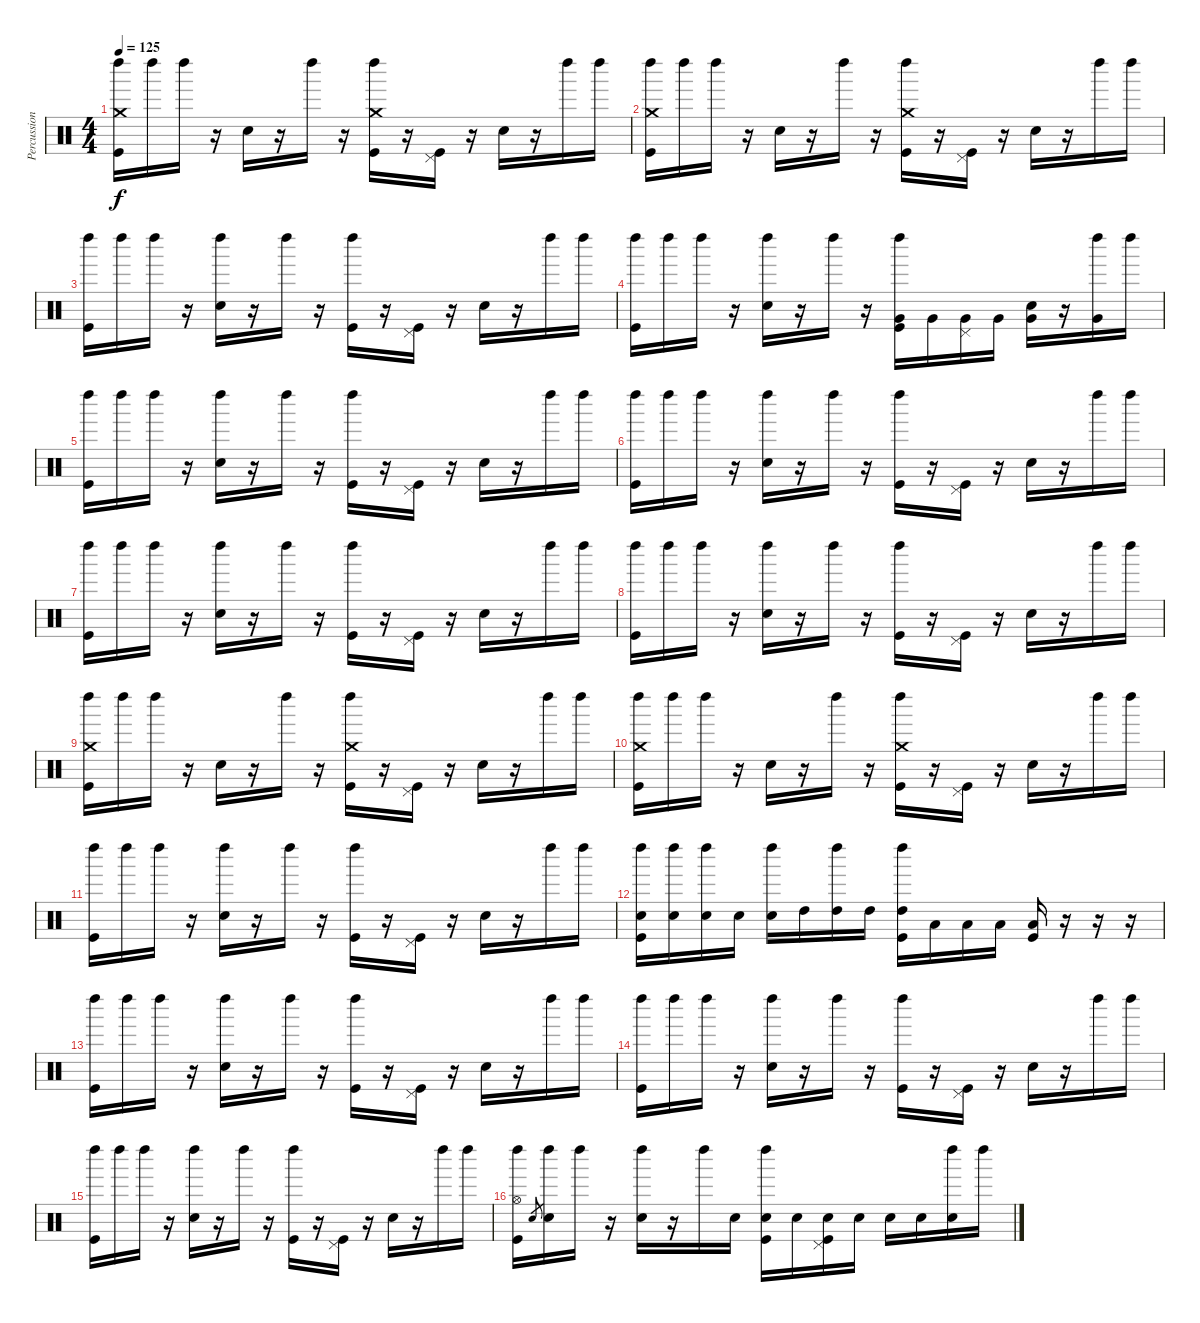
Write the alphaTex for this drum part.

\track ("Percussions" "Percussion") {instrument percussion}
\staff {score}
\articulation defaults
\ts (4 4)
\tempo 125
\clef neutral
\ks c
("Crash medium (hit)" "Left Maraca (hit)" "Kick (hit)").16{dy f} "Left Maraca (hit)".16 "Left Maraca (hit)".16 r.16 "Snare (hit) 2".16 r.16 "Left Maraca (hit)".16 r.16 ("Crash medium (hit)" "Left Maraca (hit)" "Kick (hit)").16 r.16 ("Pedal Hi-Hat (hit)" "Kick (hit)").16 r.16 "Snare (hit) 2".16 r.16 "Left Maraca (hit)".16 "Left Maraca (hit)".16 |
("Crash medium (hit)" "Left Maraca (hit)" "Kick (hit)").16 "Left Maraca (hit)".16 "Left Maraca (hit)".16 r.16 "Snare (hit) 2".16 r.16 "Left Maraca (hit)".16 r.16 ("Crash medium (hit)" "Left Maraca (hit)" "Kick (hit)").16 r.16 ("Pedal Hi-Hat (hit)" "Kick (hit)").16 r.16 "Snare (hit) 2".16 r.16 "Left Maraca (hit)".16 "Left Maraca (hit)".16 |
("Left Maraca (hit)" "Kick (hit)").16 "Left Maraca (hit)".16 "Left Maraca (hit)".16 r.16 ("Left Maraca (hit)" "Snare (hit) 2").16 r.16 "Left Maraca (hit)".16 r.16 ("Left Maraca (hit)" "Kick (hit)").16 r.16 ("Pedal Hi-Hat (hit)" "Kick (hit)").16 r.16 "Snare (hit) 2".16 r.16 "Left Maraca (hit)".16 "Left Maraca (hit)".16 |
("Left Maraca (hit)" "Kick (hit)").16 "Left Maraca (hit)".16 "Left Maraca (hit)".16 r.16 ("Left Maraca (hit)" "Snare (hit) 2").16 r.16 "Left Maraca (hit)".16 r.16 ("Left Maraca (hit)" "Very Low Tom (hit)" "Kick (hit)").16 "Very Low Tom (hit)".16 ("Pedal Hi-Hat (hit)" "Very Low Tom (hit)").16 "Very Low Tom (hit)".16 ("Snare (hit) 2" "Very Low Tom (hit)").16 r.16 ("Left Maraca (hit)" "Very Low Tom (hit)").16 "Left Maraca (hit)".16 |
("Left Maraca (hit)" "Kick (hit)").16 "Left Maraca (hit)".16 "Left Maraca (hit)".16 r.16 ("Left Maraca (hit)" "Snare (hit) 2").16 r.16 "Left Maraca (hit)".16 r.16 ("Left Maraca (hit)" "Kick (hit)").16 r.16 ("Pedal Hi-Hat (hit)" "Kick (hit)").16 r.16 "Snare (hit) 2".16 r.16 "Left Maraca (hit)".16 "Left Maraca (hit)".16 |
("Left Maraca (hit)" "Kick (hit)").16 "Left Maraca (hit)".16 "Left Maraca (hit)".16 r.16 ("Left Maraca (hit)" "Snare (hit) 2").16 r.16 "Left Maraca (hit)".16 r.16 ("Left Maraca (hit)" "Kick (hit)").16 r.16 ("Pedal Hi-Hat (hit)" "Kick (hit)").16 r.16 "Snare (hit) 2".16 r.16 "Left Maraca (hit)".16 "Left Maraca (hit)".16 |
("Left Maraca (hit)" "Kick (hit)").16 "Left Maraca (hit)".16 "Left Maraca (hit)".16 r.16 ("Left Maraca (hit)" "Snare (hit) 2").16 r.16 "Left Maraca (hit)".16 r.16 ("Left Maraca (hit)" "Kick (hit)").16 r.16 ("Pedal Hi-Hat (hit)" "Kick (hit)").16 r.16 "Snare (hit) 2".16 r.16 "Left Maraca (hit)".16 "Left Maraca (hit)".16 |
("Left Maraca (hit)" "Kick (hit)").16 "Left Maraca (hit)".16 "Left Maraca (hit)".16 r.16 ("Left Maraca (hit)" "Snare (hit) 2").16 r.16 "Left Maraca (hit)".16 r.16 ("Left Maraca (hit)" "Kick (hit)").16 r.16 ("Pedal Hi-Hat (hit)" "Kick (hit)").16 r.16 "Snare (hit) 2".16 r.16 "Left Maraca (hit)".16 "Left Maraca (hit)".16 |
("Crash medium (hit)" "Left Maraca (hit)" "Kick (hit)").16 "Left Maraca (hit)".16 "Left Maraca (hit)".16 r.16 "Snare (hit) 2".16 r.16 "Left Maraca (hit)".16 r.16 ("Crash medium (hit)" "Left Maraca (hit)" "Kick (hit)").16 r.16 ("Pedal Hi-Hat (hit)" "Kick (hit)").16 r.16 "Snare (hit) 2".16 r.16 "Left Maraca (hit)".16 "Left Maraca (hit)".16 |
("Crash medium (hit)" "Left Maraca (hit)" "Kick (hit)").16 "Left Maraca (hit)".16 "Left Maraca (hit)".16 r.16 "Snare (hit) 2".16 r.16 "Left Maraca (hit)".16 r.16 ("Crash medium (hit)" "Left Maraca (hit)" "Kick (hit)").16 r.16 ("Pedal Hi-Hat (hit)" "Kick (hit)").16 r.16 "Snare (hit) 2".16 r.16 "Left Maraca (hit)".16 "Left Maraca (hit)".16 |
("Left Maraca (hit)" "Kick (hit)").16 "Left Maraca (hit)".16 "Left Maraca (hit)".16 r.16 ("Left Maraca (hit)" "Snare (hit) 2").16 r.16 "Left Maraca (hit)".16 r.16 ("Left Maraca (hit)" "Kick (hit)").16 r.16 ("Pedal Hi-Hat (hit)" "Kick (hit)").16 r.16 "Snare (hit) 2".16 r.16 "Left Maraca (hit)".16 "Left Maraca (hit)".16 |
("Left Maraca (hit)" "Snare (hit) 2" "Kick (hit)").16 ("Left Maraca (hit)" "Snare (hit) 2").16{volume 8} ("Left Maraca (hit)" "Snare (hit) 2").16{volume 13} "Snare (hit) 2".16 ("Left Maraca (hit)" "Snare (hit) 2").16 "High Tom (hit)".16 ("Left Maraca (hit)" "High Tom (hit)").16 "High Tom (hit)".16 ("Left Maraca (hit)" "High Tom (hit)" "Kick (hit)").16 "Low Tom (hit)".16 "Low Tom (hit)".16 "Low Tom (hit)".16 ("Low Tom (hit)" "Kick (hit)").16 r.16 r.16 r.16 |
("Left Maraca (hit)" "Kick (hit)").16 "Left Maraca (hit)".16 "Left Maraca (hit)".16 r.16 ("Left Maraca (hit)" "Snare (hit) 2").16 r.16 "Left Maraca (hit)".16 r.16 ("Left Maraca (hit)" "Kick (hit)").16 r.16 ("Pedal Hi-Hat (hit)" "Kick (hit)").16 r.16 "Snare (hit) 2".16 r.16 "Left Maraca (hit)".16 "Left Maraca (hit)".16 |
("Left Maraca (hit)" "Kick (hit)").16 "Left Maraca (hit)".16 "Left Maraca (hit)".16 r.16 ("Left Maraca (hit)" "Snare (hit) 2").16 r.16 "Left Maraca (hit)".16 r.16 ("Left Maraca (hit)" "Kick (hit)").16 r.16 ("Pedal Hi-Hat (hit)" "Kick (hit)").16 r.16 "Snare (hit) 2".16 r.16 "Left Maraca (hit)".16 "Left Maraca (hit)".16 |
("Left Maraca (hit)" "Kick (hit)").16 "Left Maraca (hit)".16 "Left Maraca (hit)".16 r.16 ("Left Maraca (hit)" "Snare (hit) 2").16 r.16 "Left Maraca (hit)".16 r.16 ("Left Maraca (hit)" "Kick (hit)").16 r.16 ("Pedal Hi-Hat (hit)" "Kick (hit)").16 r.16 "Snare (hit) 2".16 r.16 "Left Maraca (hit)".16 "Left Maraca (hit)".16 |
("Hi-Hat (open)" "Left Maraca (hit)" "Kick (hit)").16 "Snare (hit) 2".8{gr} ("Left Maraca (hit)" "Snare (hit) 2"{tr (38 32)}).16 "Left Maraca (hit)".16 r.16 ("Left Maraca (hit)" "Snare (hit) 2").16 r.16 "Left Maraca (hit)".16 "Snare (hit) 2"{tr (38 32)}.16 ("Left Maraca (hit)" "Snare (hit) 2" "Kick (hit)").16 "Snare (hit) 2".16 ("Pedal Hi-Hat (hit)" "Snare (hit) 2" "Kick (hit)").16 "Snare (hit) 2".16 "Snare (hit) 2".16 "Snare (hit) 2".16 ("Left Maraca (hit)" "Snare (hit) 2").16 "Left Maraca (hit)".16
